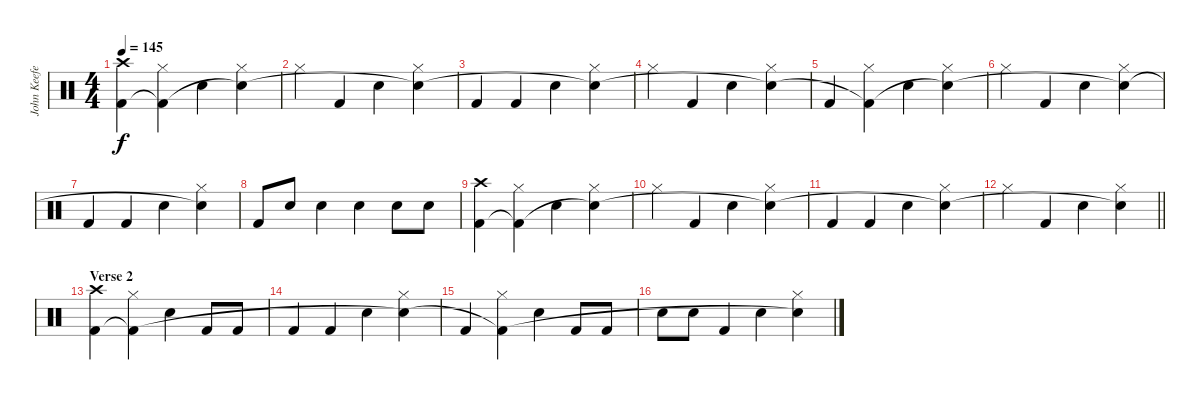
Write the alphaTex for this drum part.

\track ("John Keefe (Percussion)" "John Keefe") {instrument percussion}
\staff {score}
\articulation defaults
\ts (4 4)
\tempo 145
\clef neutral
\ks c
("Crash high (hit)" "Kick (hit) 2").4{dy f} ("Hi-Hat (closed)" "Kick (hit) 2"{t}).4 "Snare (hit) 2".4 ("Hi-Hat (closed)" "Snare (hit) 2"{t}).4 |
"Hi-Hat (closed)".4 "Kick (hit) 2".4 "Snare (hit) 2".4 ("Hi-Hat (closed)" "Snare (hit) 2"{t}).4 |
"Kick (hit) 2".4 "Kick (hit) 2".4 "Snare (hit) 2".4 ("Hi-Hat (closed)" "Snare (hit) 2"{t}).4 |
"Hi-Hat (closed)".4 "Kick (hit) 2".4 "Snare (hit) 2".4 ("Hi-Hat (closed)" "Snare (hit) 2"{t}).4 |
"Kick (hit) 2".4 ("Hi-Hat (closed)" "Kick (hit) 2"{t}).4 "Snare (hit) 2".4 ("Hi-Hat (closed)" "Snare (hit) 2"{t}).4 |
"Hi-Hat (closed)".4 "Kick (hit) 2".4 "Snare (hit) 2".4 ("Hi-Hat (closed)" "Snare (hit) 2"{t}).4 |
"Kick (hit) 2".4 "Kick (hit) 2".4 "Snare (hit) 2".4 ("Hi-Hat (closed)" "Snare (hit) 2"{t}).4 |
"Kick (hit) 2".8 "Snare (hit) 2".8 "Snare (hit) 2".4 "Snare (hit) 2".4 "Snare (hit) 2".8 "Snare (hit) 2".8 |
("Crash high (hit)" "Kick (hit) 2").4 ("Hi-Hat (closed)" "Kick (hit) 2"{t}).4 "Snare (hit) 2".4 ("Hi-Hat (closed)" "Snare (hit) 2"{t}).4 |
"Hi-Hat (closed)".4 "Kick (hit) 2".4 "Snare (hit) 2".4 ("Hi-Hat (closed)" "Snare (hit) 2"{t}).4 |
"Kick (hit) 2".4 "Kick (hit) 2".4 "Snare (hit) 2".4 ("Hi-Hat (closed)" "Snare (hit) 2"{t}).4 |
\barLineRight lightlight "Hi-Hat (closed)".4 "Kick (hit) 2".4 "Snare (hit) 2".4
("Hi-Hat (closed)" "Snare (hit) 2"{t}).4 |
\section ("" "Verse 2")
("Crash high (hit)" "Kick (hit) 2").4 ("Hi-Hat (closed)" "Kick (hit) 2"{t}).4 "Snare (hit) 2".4 "Kick (hit) 2".8 "Kick (hit) 2".8 |
"Kick (hit) 2".4 "Kick (hit) 2".4 "Snare (hit) 2".4 ("Hi-Hat (closed)" "Snare (hit) 2"{t}).4 |
"Kick (hit) 2".4 ("Hi-Hat (closed)" "Kick (hit) 2"{t}).4 "Snare (hit) 2".4 "Kick (hit) 2".8 "Kick (hit) 2".8 |
"Snare (hit) 2".8 "Snare (hit) 2".8 "Kick (hit) 2".4 "Snare (hit) 2".4 ("Hi-Hat (closed)" "Snare (hit) 2"{t}).4
